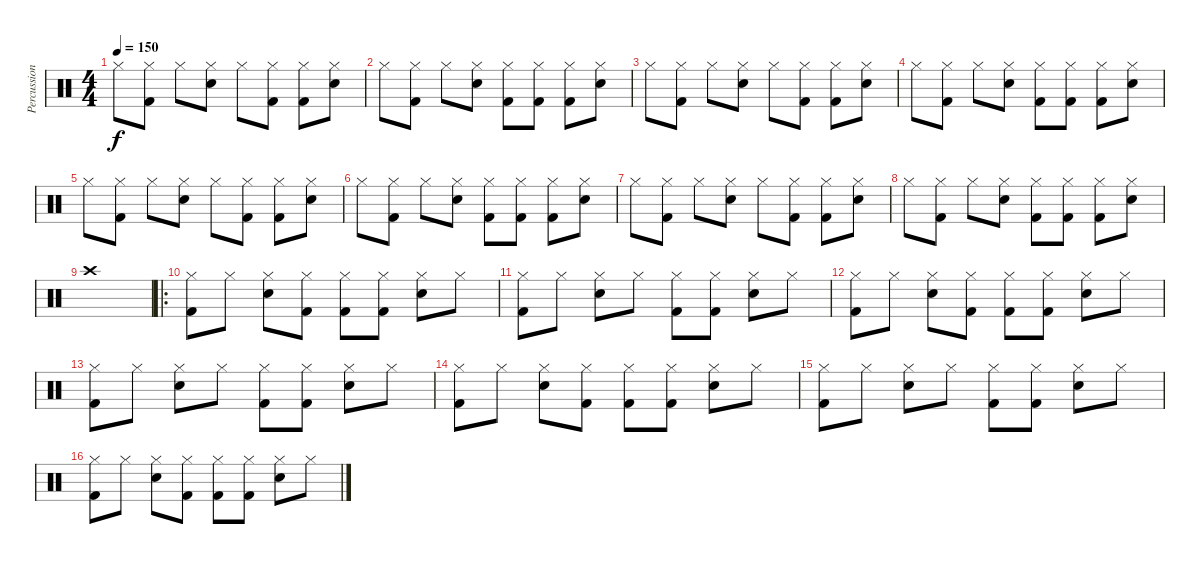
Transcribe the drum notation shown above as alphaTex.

\track ("Percussion" "Percussion") {instrument percussion}
\staff {score}
\articulation defaults
\ts (4 4)
\tempo 150
\clef neutral
\ks c "Hi-Hat (closed)".8{dy f}
("Hi-Hat (closed)" "Kick (hit) 2").8 "Hi-Hat (closed)".8 ("Hi-Hat (closed)" "Snare (hit) 2").8 "Hi-Hat (closed)".8 ("Hi-Hat (closed)" "Kick (hit) 2").8 ("Hi-Hat (closed)" "Kick (hit) 2").8 ("Hi-Hat (closed)" "Snare (hit) 2").8 |
"Hi-Hat (closed)".8 ("Hi-Hat (closed)" "Kick (hit) 2").8 "Hi-Hat (closed)".8 ("Hi-Hat (closed)" "Snare (hit) 2").8 ("Hi-Hat (closed)" "Kick (hit) 2").8 ("Hi-Hat (closed)" "Kick (hit) 2").8 ("Hi-Hat (closed)" "Kick (hit) 2").8 ("Hi-Hat (closed)" "Snare (hit) 2").8 |
"Hi-Hat (closed)".8 ("Hi-Hat (closed)" "Kick (hit) 2").8 "Hi-Hat (closed)".8 ("Hi-Hat (closed)" "Snare (hit) 2").8 "Hi-Hat (closed)".8 ("Hi-Hat (closed)" "Kick (hit) 2").8 ("Hi-Hat (closed)" "Kick (hit) 2").8 ("Hi-Hat (closed)" "Snare (hit) 2").8 |
"Hi-Hat (closed)".8 ("Hi-Hat (closed)" "Kick (hit) 2").8 "Hi-Hat (closed)".8 ("Hi-Hat (closed)" "Snare (hit) 2").8 ("Hi-Hat (closed)" "Kick (hit) 2").8 ("Hi-Hat (closed)" "Kick (hit) 2").8 ("Hi-Hat (closed)" "Kick (hit) 2").8 ("Hi-Hat (closed)" "Snare (hit) 2").8 |
"Hi-Hat (closed)".8 ("Hi-Hat (closed)" "Kick (hit) 2").8 "Hi-Hat (closed)".8 ("Hi-Hat (closed)" "Snare (hit) 2").8 "Hi-Hat (closed)".8 ("Hi-Hat (closed)" "Kick (hit) 2").8 ("Hi-Hat (closed)" "Kick (hit) 2").8 ("Hi-Hat (closed)" "Snare (hit) 2").8 |
"Hi-Hat (closed)".8 ("Hi-Hat (closed)" "Kick (hit) 2").8 "Hi-Hat (closed)".8 ("Hi-Hat (closed)" "Snare (hit) 2").8 ("Hi-Hat (closed)" "Kick (hit) 2").8 ("Hi-Hat (closed)" "Kick (hit) 2").8 ("Hi-Hat (closed)" "Kick (hit) 2").8 ("Hi-Hat (closed)" "Snare (hit) 2").8 |
"Hi-Hat (closed)".8 ("Hi-Hat (closed)" "Kick (hit) 2").8 "Hi-Hat (closed)".8 ("Hi-Hat (closed)" "Snare (hit) 2").8 "Hi-Hat (closed)".8 ("Hi-Hat (closed)" "Kick (hit) 2").8 ("Hi-Hat (closed)" "Kick (hit) 2").8 ("Hi-Hat (closed)" "Snare (hit) 2").8 |
"Hi-Hat (closed)".8 ("Hi-Hat (closed)" "Kick (hit) 2").8 "Hi-Hat (closed)".8 ("Hi-Hat (closed)" "Snare (hit) 2").8 ("Hi-Hat (closed)" "Kick (hit) 2").8 ("Hi-Hat (closed)" "Kick (hit) 2").8 ("Hi-Hat (closed)" "Kick (hit) 2").8 ("Hi-Hat (closed)" "Snare (hit) 2").8 |
"Crash high (hit)".1 |
\ro
("Hi-Hat (closed)" "Kick (hit) 2").8 "Hi-Hat (closed)".8 ("Hi-Hat (closed)" "Snare (hit) 2").8 ("Hi-Hat (closed)" "Kick (hit) 2").8 ("Hi-Hat (closed)" "Kick (hit) 2").8 ("Hi-Hat (closed)" "Kick (hit) 2").8 ("Hi-Hat (closed)" "Snare (hit) 2").8 "Hi-Hat (closed)".8 |
("Hi-Hat (closed)" "Kick (hit) 2").8 "Hi-Hat (closed)".8 ("Hi-Hat (closed)" "Snare (hit) 2").8 "Hi-Hat (closed)".8 ("Hi-Hat (closed)" "Kick (hit) 2").8 ("Hi-Hat (closed)" "Kick (hit) 2").8 ("Hi-Hat (closed)" "Snare (hit) 2").8 "Hi-Hat (closed)".8 |
("Hi-Hat (closed)" "Kick (hit) 2").8 "Hi-Hat (closed)".8 ("Hi-Hat (closed)" "Snare (hit) 2").8 ("Hi-Hat (closed)" "Kick (hit) 2").8 ("Hi-Hat (closed)" "Kick (hit) 2").8 ("Hi-Hat (closed)" "Kick (hit) 2").8 ("Hi-Hat (closed)" "Snare (hit) 2").8 "Hi-Hat (closed)".8 |
("Hi-Hat (closed)" "Kick (hit) 2").8 "Hi-Hat (closed)".8 ("Hi-Hat (closed)" "Snare (hit) 2").8 "Hi-Hat (closed)".8 ("Hi-Hat (closed)" "Kick (hit) 2").8 ("Hi-Hat (closed)" "Kick (hit) 2").8 ("Hi-Hat (closed)" "Snare (hit) 2").8 "Hi-Hat (closed)".8 |
("Hi-Hat (closed)" "Kick (hit) 2").8 "Hi-Hat (closed)".8 ("Hi-Hat (closed)" "Snare (hit) 2").8 ("Hi-Hat (closed)" "Kick (hit) 2").8 ("Hi-Hat (closed)" "Kick (hit) 2").8 ("Hi-Hat (closed)" "Kick (hit) 2").8 ("Hi-Hat (closed)" "Snare (hit) 2").8 "Hi-Hat (closed)".8 |
("Hi-Hat (closed)" "Kick (hit) 2").8 "Hi-Hat (closed)".8 ("Hi-Hat (closed)" "Snare (hit) 2").8 "Hi-Hat (closed)".8 ("Hi-Hat (closed)" "Kick (hit) 2").8 ("Hi-Hat (closed)" "Kick (hit) 2").8 ("Hi-Hat (closed)" "Snare (hit) 2").8 "Hi-Hat (closed)".8 |
("Hi-Hat (closed)" "Kick (hit) 2").8 "Hi-Hat (closed)".8 ("Hi-Hat (closed)" "Snare (hit) 2").8 ("Hi-Hat (closed)" "Kick (hit) 2").8 ("Hi-Hat (closed)" "Kick (hit) 2").8 ("Hi-Hat (closed)" "Kick (hit) 2").8 ("Hi-Hat (closed)" "Snare (hit) 2").8 "Hi-Hat (closed)".8
